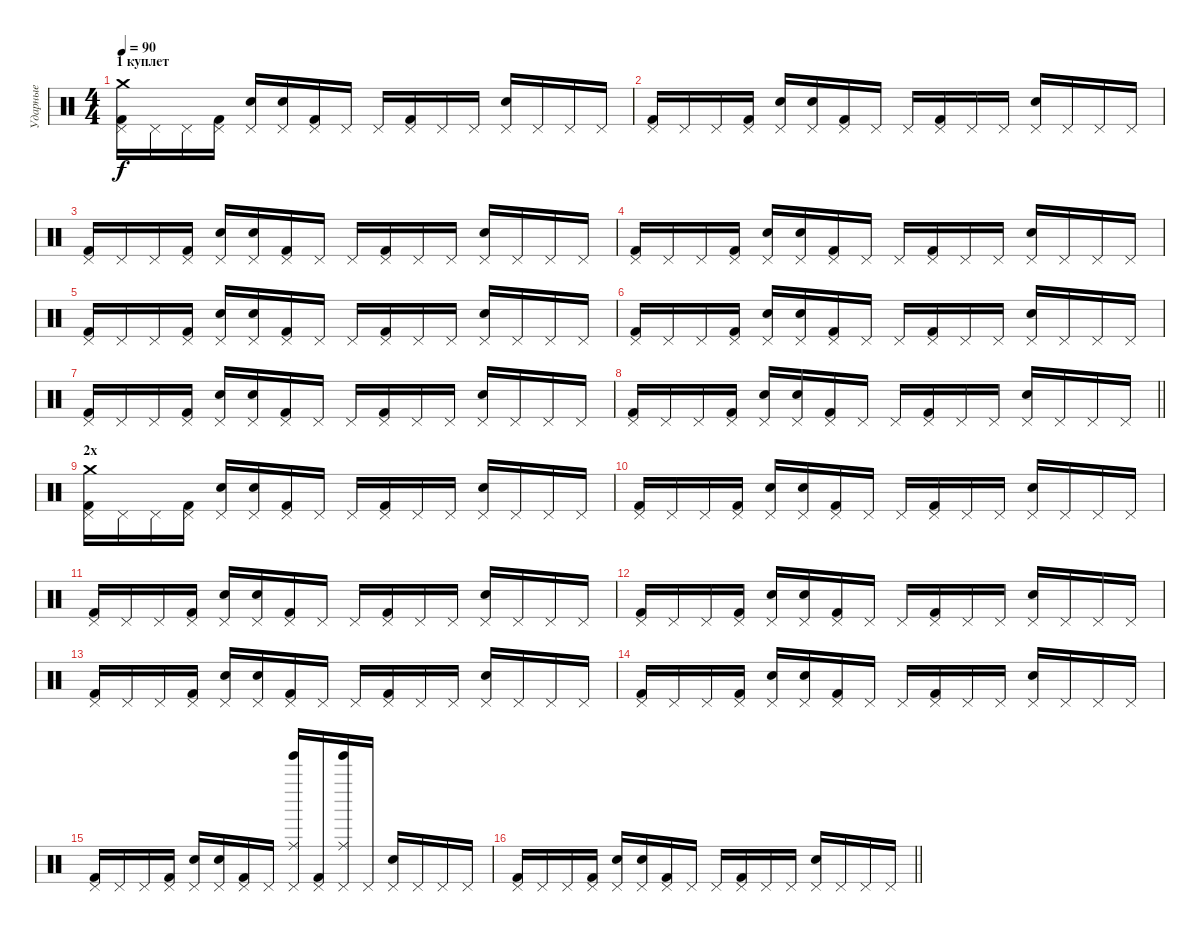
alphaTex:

\track ("Ударные" "Ударные") {instrument percussion}
\staff {score}
\articulation defaults
\ts (4 4)
\section ("" "1 куплет")
\tempo 90
\clef neutral
\ks c
("Pedal Hi-Hat (hit)" "Kick (hit) 2" "Crash medium (hit)").16{dy f} "Pedal Hi-Hat (hit)".16 "Pedal Hi-Hat (hit)".16 ("Pedal Hi-Hat (hit)" "Kick (hit) 2").16 ("Pedal Hi-Hat (hit)" "Electric Snare (hit)").16 ("Pedal Hi-Hat (hit)" "Electric Snare (hit)").16 ("Pedal Hi-Hat (hit)" "Kick (hit) 2").16 "Pedal Hi-Hat (hit)".16 "Pedal Hi-Hat (hit)".16 ("Pedal Hi-Hat (hit)" "Kick (hit) 2").16 "Pedal Hi-Hat (hit)".16 "Pedal Hi-Hat (hit)".16 ("Pedal Hi-Hat (hit)" "Electric Snare (hit)").16 "Pedal Hi-Hat (hit)".16 "Pedal Hi-Hat (hit)".16 "Pedal Hi-Hat (hit)".16 |
("Pedal Hi-Hat (hit)" "Kick (hit) 2").16 "Pedal Hi-Hat (hit)".16 "Pedal Hi-Hat (hit)".16 ("Pedal Hi-Hat (hit)" "Kick (hit) 2").16 ("Pedal Hi-Hat (hit)" "Electric Snare (hit)").16 ("Pedal Hi-Hat (hit)" "Electric Snare (hit)").16 ("Pedal Hi-Hat (hit)" "Kick (hit) 2").16 "Pedal Hi-Hat (hit)".16 "Pedal Hi-Hat (hit)".16 ("Pedal Hi-Hat (hit)" "Kick (hit) 2").16 "Pedal Hi-Hat (hit)".16 "Pedal Hi-Hat (hit)".16 ("Pedal Hi-Hat (hit)" "Electric Snare (hit)").16 "Pedal Hi-Hat (hit)".16 "Pedal Hi-Hat (hit)".16 "Pedal Hi-Hat (hit)".16 |
("Pedal Hi-Hat (hit)" "Kick (hit) 2").16 "Pedal Hi-Hat (hit)".16 "Pedal Hi-Hat (hit)".16 ("Pedal Hi-Hat (hit)" "Kick (hit) 2").16 ("Pedal Hi-Hat (hit)" "Electric Snare (hit)").16 ("Pedal Hi-Hat (hit)" "Electric Snare (hit)").16 ("Pedal Hi-Hat (hit)" "Kick (hit) 2").16 "Pedal Hi-Hat (hit)".16 "Pedal Hi-Hat (hit)".16 ("Pedal Hi-Hat (hit)" "Kick (hit) 2").16 "Pedal Hi-Hat (hit)".16 "Pedal Hi-Hat (hit)".16 ("Pedal Hi-Hat (hit)" "Electric Snare (hit)").16 "Pedal Hi-Hat (hit)".16 "Pedal Hi-Hat (hit)".16 "Pedal Hi-Hat (hit)".16 |
("Pedal Hi-Hat (hit)" "Kick (hit) 2").16 "Pedal Hi-Hat (hit)".16 "Pedal Hi-Hat (hit)".16 ("Pedal Hi-Hat (hit)" "Kick (hit) 2").16 ("Pedal Hi-Hat (hit)" "Electric Snare (hit)").16 ("Pedal Hi-Hat (hit)" "Electric Snare (hit)").16 ("Pedal Hi-Hat (hit)" "Kick (hit) 2").16 "Pedal Hi-Hat (hit)".16 "Pedal Hi-Hat (hit)".16 ("Pedal Hi-Hat (hit)" "Kick (hit) 2").16 "Pedal Hi-Hat (hit)".16 "Pedal Hi-Hat (hit)".16 ("Pedal Hi-Hat (hit)" "Electric Snare (hit)").16 "Pedal Hi-Hat (hit)".16 "Pedal Hi-Hat (hit)".16 "Pedal Hi-Hat (hit)".16 |
("Pedal Hi-Hat (hit)" "Kick (hit) 2").16 "Pedal Hi-Hat (hit)".16 "Pedal Hi-Hat (hit)".16 ("Pedal Hi-Hat (hit)" "Kick (hit) 2").16 ("Pedal Hi-Hat (hit)" "Electric Snare (hit)").16 ("Pedal Hi-Hat (hit)" "Electric Snare (hit)").16 ("Pedal Hi-Hat (hit)" "Kick (hit) 2").16 "Pedal Hi-Hat (hit)".16 "Pedal Hi-Hat (hit)".16 ("Pedal Hi-Hat (hit)" "Kick (hit) 2").16 "Pedal Hi-Hat (hit)".16 "Pedal Hi-Hat (hit)".16 ("Pedal Hi-Hat (hit)" "Electric Snare (hit)").16 "Pedal Hi-Hat (hit)".16 "Pedal Hi-Hat (hit)".16 "Pedal Hi-Hat (hit)".16 |
("Pedal Hi-Hat (hit)" "Kick (hit) 2").16 "Pedal Hi-Hat (hit)".16 "Pedal Hi-Hat (hit)".16 ("Pedal Hi-Hat (hit)" "Kick (hit) 2").16 ("Pedal Hi-Hat (hit)" "Electric Snare (hit)").16 ("Pedal Hi-Hat (hit)" "Electric Snare (hit)").16 ("Pedal Hi-Hat (hit)" "Kick (hit) 2").16 "Pedal Hi-Hat (hit)".16 "Pedal Hi-Hat (hit)".16 ("Pedal Hi-Hat (hit)" "Kick (hit) 2").16 "Pedal Hi-Hat (hit)".16 "Pedal Hi-Hat (hit)".16 ("Pedal Hi-Hat (hit)" "Electric Snare (hit)").16 "Pedal Hi-Hat (hit)".16 "Pedal Hi-Hat (hit)".16 "Pedal Hi-Hat (hit)".16 |
("Pedal Hi-Hat (hit)" "Kick (hit) 2").16 "Pedal Hi-Hat (hit)".16 "Pedal Hi-Hat (hit)".16 ("Pedal Hi-Hat (hit)" "Kick (hit) 2").16 ("Pedal Hi-Hat (hit)" "Electric Snare (hit)").16 ("Pedal Hi-Hat (hit)" "Electric Snare (hit)").16 ("Pedal Hi-Hat (hit)" "Kick (hit) 2").16 "Pedal Hi-Hat (hit)".16 "Pedal Hi-Hat (hit)".16 ("Pedal Hi-Hat (hit)" "Kick (hit) 2").16 "Pedal Hi-Hat (hit)".16 "Pedal Hi-Hat (hit)".16 ("Pedal Hi-Hat (hit)" "Electric Snare (hit)").16 "Pedal Hi-Hat (hit)".16 "Pedal Hi-Hat (hit)".16 "Pedal Hi-Hat (hit)".16 |
\barLineRight lightlight
("Pedal Hi-Hat (hit)" "Kick (hit) 2").16 "Pedal Hi-Hat (hit)".16 "Pedal Hi-Hat (hit)".16 ("Pedal Hi-Hat (hit)" "Kick (hit) 2").16 ("Pedal Hi-Hat (hit)" "Electric Snare (hit)").16 ("Pedal Hi-Hat (hit)" "Electric Snare (hit)").16 ("Pedal Hi-Hat (hit)" "Kick (hit) 2").16 "Pedal Hi-Hat (hit)".16 "Pedal Hi-Hat (hit)".16 ("Pedal Hi-Hat (hit)" "Kick (hit) 2").16 "Pedal Hi-Hat (hit)".16 "Pedal Hi-Hat (hit)".16 ("Pedal Hi-Hat (hit)" "Electric Snare (hit)").16 "Pedal Hi-Hat (hit)".16 "Pedal Hi-Hat (hit)".16 "Pedal Hi-Hat (hit)".16 |
\section ("" "2х")
("Pedal Hi-Hat (hit)" "Kick (hit) 2" "Crash medium (hit)").16 "Pedal Hi-Hat (hit)".16 "Pedal Hi-Hat (hit)".16 ("Pedal Hi-Hat (hit)" "Kick (hit) 2").16 ("Pedal Hi-Hat (hit)" "Electric Snare (hit)").16 ("Pedal Hi-Hat (hit)" "Electric Snare (hit)").16 ("Pedal Hi-Hat (hit)" "Kick (hit) 2").16 "Pedal Hi-Hat (hit)".16 "Pedal Hi-Hat (hit)".16 ("Pedal Hi-Hat (hit)" "Kick (hit) 2").16 "Pedal Hi-Hat (hit)".16 "Pedal Hi-Hat (hit)".16 ("Pedal Hi-Hat (hit)" "Electric Snare (hit)").16 "Pedal Hi-Hat (hit)".16 "Pedal Hi-Hat (hit)".16 "Pedal Hi-Hat (hit)".16 |
("Pedal Hi-Hat (hit)" "Kick (hit) 2").16 "Pedal Hi-Hat (hit)".16 "Pedal Hi-Hat (hit)".16 ("Pedal Hi-Hat (hit)" "Kick (hit) 2").16 ("Pedal Hi-Hat (hit)" "Electric Snare (hit)").16 ("Pedal Hi-Hat (hit)" "Electric Snare (hit)").16 ("Pedal Hi-Hat (hit)" "Kick (hit) 2").16 "Pedal Hi-Hat (hit)".16 "Pedal Hi-Hat (hit)".16 ("Pedal Hi-Hat (hit)" "Kick (hit) 2").16 "Pedal Hi-Hat (hit)".16 "Pedal Hi-Hat (hit)".16 ("Pedal Hi-Hat (hit)" "Electric Snare (hit)").16 "Pedal Hi-Hat (hit)".16 "Pedal Hi-Hat (hit)".16 "Pedal Hi-Hat (hit)".16 |
("Pedal Hi-Hat (hit)" "Kick (hit) 2").16 "Pedal Hi-Hat (hit)".16 "Pedal Hi-Hat (hit)".16 ("Pedal Hi-Hat (hit)" "Kick (hit) 2").16 ("Pedal Hi-Hat (hit)" "Electric Snare (hit)").16 ("Pedal Hi-Hat (hit)" "Electric Snare (hit)").16 ("Pedal Hi-Hat (hit)" "Kick (hit) 2").16 "Pedal Hi-Hat (hit)".16 "Pedal Hi-Hat (hit)".16 ("Pedal Hi-Hat (hit)" "Kick (hit) 2").16 "Pedal Hi-Hat (hit)".16 "Pedal Hi-Hat (hit)".16 ("Pedal Hi-Hat (hit)" "Electric Snare (hit)").16 "Pedal Hi-Hat (hit)".16 "Pedal Hi-Hat (hit)".16 "Pedal Hi-Hat (hit)".16 |
("Pedal Hi-Hat (hit)" "Kick (hit) 2").16 "Pedal Hi-Hat (hit)".16 "Pedal Hi-Hat (hit)".16 ("Pedal Hi-Hat (hit)" "Kick (hit) 2").16 ("Pedal Hi-Hat (hit)" "Electric Snare (hit)").16 ("Pedal Hi-Hat (hit)" "Electric Snare (hit)").16 ("Pedal Hi-Hat (hit)" "Kick (hit) 2").16 "Pedal Hi-Hat (hit)".16 "Pedal Hi-Hat (hit)".16 ("Pedal Hi-Hat (hit)" "Kick (hit) 2").16 "Pedal Hi-Hat (hit)".16 "Pedal Hi-Hat (hit)".16 ("Pedal Hi-Hat (hit)" "Electric Snare (hit)").16 "Pedal Hi-Hat (hit)".16 "Pedal Hi-Hat (hit)".16 "Pedal Hi-Hat (hit)".16 |
("Pedal Hi-Hat (hit)" "Kick (hit) 2").16 "Pedal Hi-Hat (hit)".16 "Pedal Hi-Hat (hit)".16 ("Pedal Hi-Hat (hit)" "Kick (hit) 2").16 ("Pedal Hi-Hat (hit)" "Electric Snare (hit)").16 ("Pedal Hi-Hat (hit)" "Electric Snare (hit)").16 ("Pedal Hi-Hat (hit)" "Kick (hit) 2").16 "Pedal Hi-Hat (hit)".16 "Pedal Hi-Hat (hit)".16 ("Pedal Hi-Hat (hit)" "Kick (hit) 2").16 "Pedal Hi-Hat (hit)".16 "Pedal Hi-Hat (hit)".16 ("Pedal Hi-Hat (hit)" "Electric Snare (hit)").16 "Pedal Hi-Hat (hit)".16 "Pedal Hi-Hat (hit)".16 "Pedal Hi-Hat (hit)".16 |
("Pedal Hi-Hat (hit)" "Kick (hit) 2").16 "Pedal Hi-Hat (hit)".16 "Pedal Hi-Hat (hit)".16 ("Pedal Hi-Hat (hit)" "Kick (hit) 2").16 ("Pedal Hi-Hat (hit)" "Electric Snare (hit)").16 ("Pedal Hi-Hat (hit)" "Electric Snare (hit)").16 ("Pedal Hi-Hat (hit)" "Kick (hit) 2").16 "Pedal Hi-Hat (hit)".16 "Pedal Hi-Hat (hit)".16 ("Pedal Hi-Hat (hit)" "Kick (hit) 2").16 "Pedal Hi-Hat (hit)".16 "Pedal Hi-Hat (hit)".16 ("Pedal Hi-Hat (hit)" "Electric Snare (hit)").16 "Pedal Hi-Hat (hit)".16 "Pedal Hi-Hat (hit)".16 "Pedal Hi-Hat (hit)".16 |
("Pedal Hi-Hat (hit)" "Kick (hit) 2").16 "Pedal Hi-Hat (hit)".16 "Pedal Hi-Hat (hit)".16 ("Pedal Hi-Hat (hit)" "Kick (hit) 2").16 ("Pedal Hi-Hat (hit)" "Electric Snare (hit)").16 ("Pedal Hi-Hat (hit)" "Electric Snare (hit)").16 ("Pedal Hi-Hat (hit)" "Kick (hit) 2").16 "Pedal Hi-Hat (hit)".16 ("Pedal Hi-Hat (hit)" "Tinkle Bell (hit)" "Ride (middle)").16 ("Pedal Hi-Hat (hit)" "Kick (hit) 2").16 ("Pedal Hi-Hat (hit)" "Tinkle Bell (hit)" "Ride (middle)").16 "Pedal Hi-Hat (hit)".16 ("Pedal Hi-Hat (hit)" "Electric Snare (hit)").16 "Pedal Hi-Hat (hit)".16 "Pedal Hi-Hat (hit)".16 "Pedal Hi-Hat (hit)".16 |
\barLineRight lightlight
("Pedal Hi-Hat (hit)" "Kick (hit) 2").16 "Pedal Hi-Hat (hit)".16 "Pedal Hi-Hat (hit)".16 ("Pedal Hi-Hat (hit)" "Kick (hit) 2").16 ("Pedal Hi-Hat (hit)" "Electric Snare (hit)").16 ("Pedal Hi-Hat (hit)" "Electric Snare (hit)").16 ("Pedal Hi-Hat (hit)" "Kick (hit) 2").16 "Pedal Hi-Hat (hit)".16 "Pedal Hi-Hat (hit)".16 ("Pedal Hi-Hat (hit)" "Kick (hit) 2").16 "Pedal Hi-Hat (hit)".16 "Pedal Hi-Hat (hit)".16 ("Pedal Hi-Hat (hit)" "Electric Snare (hit)").16 "Pedal Hi-Hat (hit)".16 "Pedal Hi-Hat (hit)".16 "Pedal Hi-Hat (hit)".16
